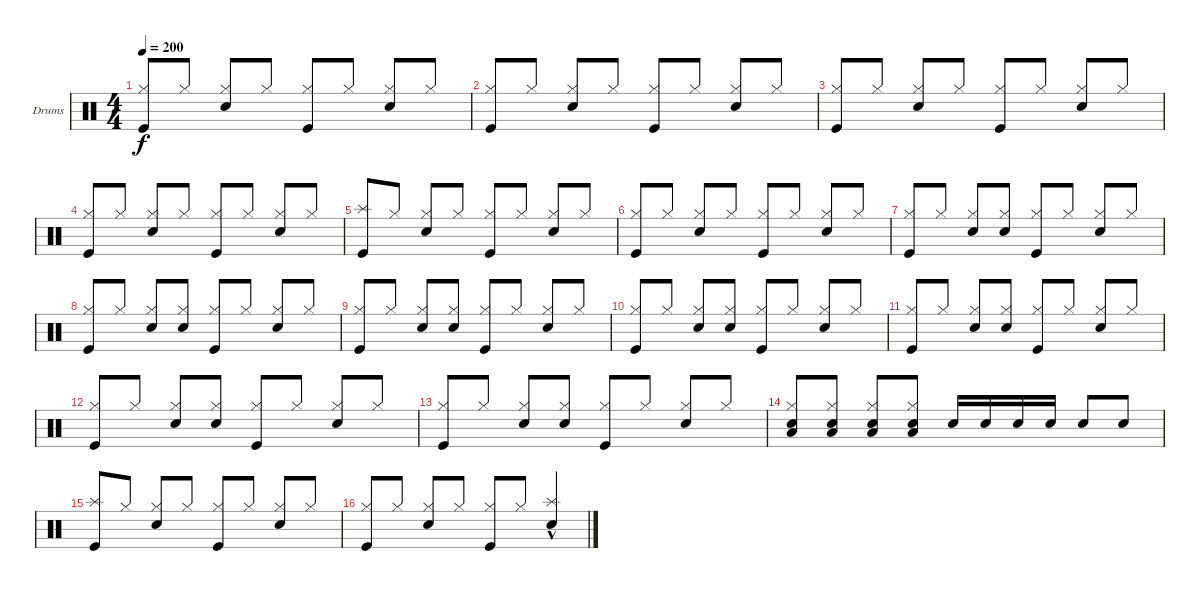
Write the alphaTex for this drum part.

\defaultSystemsLayout 4
\bracketExtendMode groupsimilarinstruments
\firstSystemTrackNameOrientation horizontal
\otherSystemsTrackNameOrientation horizontal
\track ("Drumkit" "Drums") {instrument percussion}
\staff {score}
\articulation defaults
\ts (4 4)
\tempo 200
\clef neutral
\ks c
("Hi-Hat (closed)" "Kick (hit)").8{dy f beam invert} "Hi-Hat (closed)".8 ("Hi-Hat (closed)" "Snare (hit) 2").8{beam invert} "Hi-Hat (closed)".8 ("Hi-Hat (closed)" "Kick (hit)").8{beam invert} "Hi-Hat (closed)".8 ("Hi-Hat (closed)" "Snare (hit) 2").8{beam invert} "Hi-Hat (closed)".8 |
("Hi-Hat (closed)" "Kick (hit)").8{beam invert} "Hi-Hat (closed)".8 ("Hi-Hat (closed)" "Snare (hit) 2").8{beam invert} "Hi-Hat (closed)".8 ("Hi-Hat (closed)" "Kick (hit)").8{beam invert} "Hi-Hat (closed)".8 ("Hi-Hat (closed)" "Snare (hit) 2").8{beam invert} "Hi-Hat (closed)".8 |
("Hi-Hat (closed)" "Kick (hit)").8{beam invert} "Hi-Hat (closed)".8 ("Hi-Hat (closed)" "Snare (hit) 2").8{beam invert} "Hi-Hat (closed)".8 ("Hi-Hat (closed)" "Kick (hit)").8{beam invert} "Hi-Hat (closed)".8 ("Hi-Hat (closed)" "Snare (hit) 2").8{beam invert} "Hi-Hat (closed)".8 |
("Hi-Hat (closed)" "Kick (hit)").8{beam invert} "Hi-Hat (closed)".8 ("Hi-Hat (closed)" "Snare (hit) 2").8{beam invert} "Hi-Hat (closed)".8 ("Hi-Hat (closed)" "Kick (hit)").8{beam invert} "Hi-Hat (closed)".8 ("Hi-Hat (closed)" "Snare (hit) 2").8{beam invert} "Hi-Hat (closed)".8 |
("Kick (hit)" "Splash (hit)").8 "Hi-Hat (closed)".8 ("Hi-Hat (closed)" "Snare (hit) 2").8{beam invert} "Hi-Hat (closed)".8 ("Hi-Hat (closed)" "Kick (hit)").8{beam invert} "Hi-Hat (closed)".8 ("Hi-Hat (closed)" "Snare (hit) 2").8{beam invert} "Hi-Hat (closed)".8 |
("Hi-Hat (closed)" "Kick (hit)").8{beam invert} "Hi-Hat (closed)".8 ("Hi-Hat (closed)" "Snare (hit) 2").8{beam invert} "Hi-Hat (closed)".8 ("Hi-Hat (closed)" "Kick (hit)").8{beam invert} "Hi-Hat (closed)".8 ("Hi-Hat (closed)" "Snare (hit) 2").8{beam invert} "Hi-Hat (closed)".8 |
("Hi-Hat (closed)" "Kick (hit)").8{beam invert} "Hi-Hat (closed)".8 ("Hi-Hat (closed)" "Snare (hit) 2").8{beam invert} ("Hi-Hat (closed)" "Snare (hit) 2").8 ("Hi-Hat (closed)" "Kick (hit)").8{beam invert} "Hi-Hat (closed)".8 ("Hi-Hat (closed)" "Snare (hit) 2").8{beam invert} "Hi-Hat (closed)".8 |
("Hi-Hat (closed)" "Kick (hit)").8{beam invert} "Hi-Hat (closed)".8 ("Hi-Hat (closed)" "Snare (hit) 2").8{beam invert} ("Hi-Hat (closed)" "Snare (hit) 2").8 ("Hi-Hat (closed)" "Kick (hit)").8{beam invert} "Hi-Hat (closed)".8 ("Hi-Hat (closed)" "Snare (hit) 2").8{beam invert} "Hi-Hat (closed)".8 |
("Hi-Hat (closed)" "Kick (hit)").8{beam invert} "Hi-Hat (closed)".8 ("Hi-Hat (closed)" "Snare (hit) 2").8{beam invert} ("Hi-Hat (closed)" "Snare (hit) 2").8 ("Hi-Hat (closed)" "Kick (hit)").8{beam invert} "Hi-Hat (closed)".8 ("Hi-Hat (closed)" "Snare (hit) 2").8{beam invert} "Hi-Hat (closed)".8 |
("Hi-Hat (closed)" "Kick (hit)").8{beam invert} "Hi-Hat (closed)".8 ("Hi-Hat (closed)" "Snare (hit) 2").8{beam invert} ("Hi-Hat (closed)" "Snare (hit) 2").8 ("Hi-Hat (closed)" "Kick (hit)").8{beam invert} "Hi-Hat (closed)".8 ("Hi-Hat (closed)" "Snare (hit) 2").8{beam invert} "Hi-Hat (closed)".8 |
("Hi-Hat (closed)" "Kick (hit)").8{beam invert} "Hi-Hat (closed)".8 ("Hi-Hat (closed)" "Snare (hit) 2").8{beam invert} ("Hi-Hat (closed)" "Snare (hit) 2").8 ("Hi-Hat (closed)" "Kick (hit)").8{beam invert} "Hi-Hat (closed)".8 ("Hi-Hat (closed)" "Snare (hit) 2").8{beam invert} "Hi-Hat (closed)".8 |
("Hi-Hat (closed)" "Kick (hit)").8{beam invert} "Hi-Hat (closed)".8 ("Hi-Hat (closed)" "Snare (hit) 2").8{beam invert} ("Hi-Hat (closed)" "Snare (hit) 2").8 ("Hi-Hat (closed)" "Kick (hit)").8{beam invert} "Hi-Hat (closed)".8 ("Hi-Hat (closed)" "Snare (hit) 2").8{beam invert} "Hi-Hat (closed)".8 |
("Hi-Hat (closed)" "Kick (hit)").8{beam invert} "Hi-Hat (closed)".8 ("Hi-Hat (closed)" "Snare (hit) 2").8{beam invert} ("Hi-Hat (closed)" "Snare (hit) 2").8 ("Hi-Hat (closed)" "Kick (hit)").8{beam invert} "Hi-Hat (closed)".8 ("Hi-Hat (closed)" "Snare (hit) 2").8{beam invert} "Hi-Hat (closed)".8 |
("Hi-Hat (closed)" "Snare (hit) 2" "Low Tom (hit)").8{beam invert} ("Hi-Hat (closed)" "Snare (hit) 2" "Low Tom (hit)").8 ("Hi-Hat (closed)" "Snare (hit) 2" "Low Tom (hit)").8{beam invert} ("Hi-Hat (closed)" "Snare (hit) 2" "Low Tom (hit)").8 "Snare (hit) 2".16{beam invert} "Snare (hit) 2".16 "Snare (hit) 2".16 "Snare (hit) 2".16 "Snare (hit) 2".8{beam invert} "Snare (hit) 2".8 |
("Kick (hit)" "Splash (hit)").8 "Hi-Hat (closed)".8 ("Hi-Hat (closed)" "Snare (hit) 2").8{beam invert} "Hi-Hat (closed)".8 ("Hi-Hat (closed)" "Kick (hit)").8{beam invert} "Hi-Hat (closed)".8 ("Hi-Hat (closed)" "Snare (hit) 2").8{beam invert} "Hi-Hat (closed)".8 |
("Hi-Hat (closed)" "Kick (hit)").8{beam invert} "Hi-Hat (closed)".8 ("Hi-Hat (closed)" "Snare (hit) 2").8{beam invert} "Hi-Hat (closed)".8 ("Hi-Hat (closed)" "Kick (hit)").8{beam invert} "Hi-Hat (closed)".8 ("Snare (hit) 2" "Splash (hit)"{hac}).4{beam invert}
